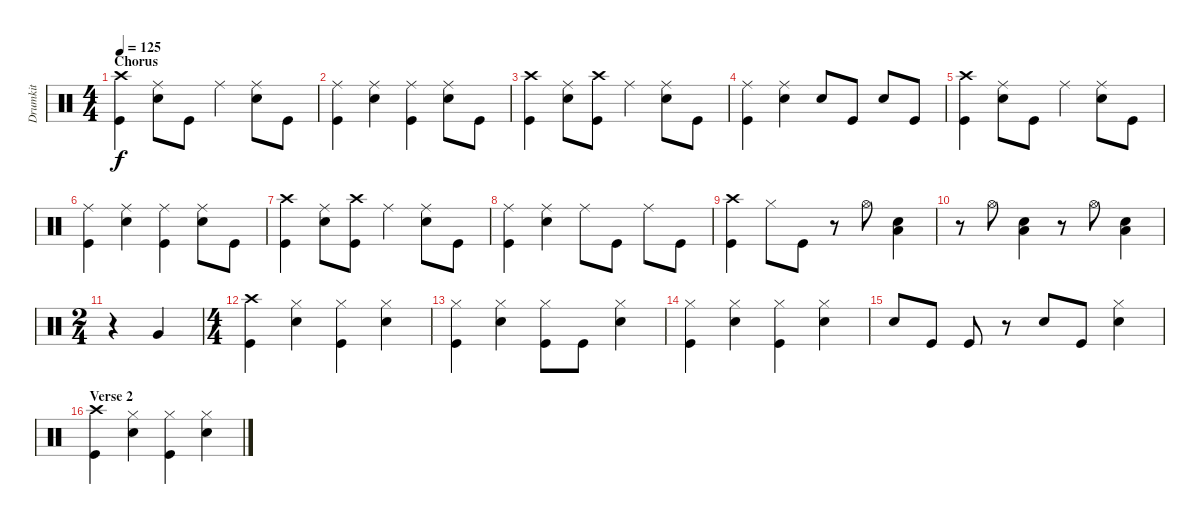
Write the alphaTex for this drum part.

\track ("Drumkit" "Drumkit") {instrument percussion}
\staff {score}
\articulation defaults
\ts (4 4)
\section ("" "Chorus")
\tempo 125
\clef neutral
\ks c
("Crash high (hit)" "Kick (hit)").4{dy f} ("Ride (middle)" "Snare (hit) 2").8 "Kick (hit)".8 "Ride (middle)".4 ("Ride (middle)" "Snare (hit) 2").8 "Kick (hit)".8 |
("Ride (middle)" "Kick (hit)").4 ("Ride (middle)" "Snare (hit) 2").4 ("Ride (middle)" "Kick (hit)").4 ("Ride (middle)" "Snare (hit) 2").8 "Kick (hit)".8 |
("Crash high (hit)" "Kick (hit)").4 ("Ride (middle)" "Snare (hit) 2").8 ("Crash high (hit)" "Kick (hit)").8 "Ride (middle)".4 ("Ride (middle)" "Snare (hit) 2").8 "Kick (hit)".8 |
("Ride (middle)" "Kick (hit)").4 ("Ride (middle)" "Snare (hit) 2").4 "Snare (hit) 2".8 "Kick (hit)".8 "Snare (hit) 2".8 "Kick (hit)".8 |
("Crash high (hit)" "Kick (hit)").4 ("Ride (middle)" "Snare (hit) 2").8 "Kick (hit)".8 "Ride (middle)".4 ("Ride (middle)" "Snare (hit) 2").8 "Kick (hit)".8 |
("Ride (middle)" "Kick (hit)").4 ("Ride (middle)" "Snare (hit) 2").4 ("Ride (middle)" "Kick (hit)").4 ("Ride (middle)" "Snare (hit) 2").8 "Kick (hit)".8 |
("Crash high (hit)" "Kick (hit)").4 ("Ride (middle)" "Snare (hit) 2").8 ("Crash high (hit)" "Kick (hit)").8 "Ride (middle)".4 ("Ride (middle)" "Snare (hit) 2").8 "Kick (hit)".8 |
("Ride (middle)" "Kick (hit)").4 ("Ride (middle)" "Snare (hit) 2").4 "Ride (middle)".8 "Kick (hit)".8 "Ride (middle)".8 "Kick (hit)".8 |
("Crash high (hit)" "Kick (hit)").4 "Hi-Hat (closed)".8 "Kick (hit)".8 r.8 "Hi-Hat (open)".8 ("Low Tom (hit)" "Snare (hit) 2").4 |
r.8 "Hi-Hat (open)".8 ("Low Tom (hit)" "Snare (hit) 2").4 r.8 "Hi-Hat (open)".8 ("Low Tom (hit)" "Snare (hit) 2").4 |
\ts (2 4)
r.4 "Very Low Tom (hit)".4 |
\ts (4 4)
("Crash high (hit)" "Kick (hit)").4 ("Hi-Hat (closed)" "Snare (hit) 2").4 ("Hi-Hat (closed)" "Kick (hit)").4 ("Hi-Hat (closed)" "Snare (hit) 2").4 |
("Hi-Hat (closed)" "Kick (hit)").4 ("Hi-Hat (closed)" "Snare (hit) 2").4 ("Hi-Hat (closed)" "Kick (hit)").8 "Kick (hit)".8 ("Hi-Hat (closed)" "Snare (hit) 2").4 |
("Hi-Hat (closed)" "Kick (hit)").4 ("Hi-Hat (closed)" "Snare (hit) 2").4 ("Hi-Hat (closed)" "Kick (hit)").4 ("Hi-Hat (closed)" "Snare (hit) 2").4 |
"Snare (hit) 2".8 "Kick (hit)".8 "Kick (hit)".8 r.8 "Snare (hit) 2".8 "Kick (hit)".8 ("Hi-Hat (closed)" "Snare (hit) 2").4 |
\section ("" "Verse 2")
("Crash high (hit)" "Kick (hit)").4 ("Hi-Hat (closed)" "Snare (hit) 2").4 ("Hi-Hat (closed)" "Kick (hit)").4 ("Hi-Hat (closed)" "Snare (hit) 2").4
